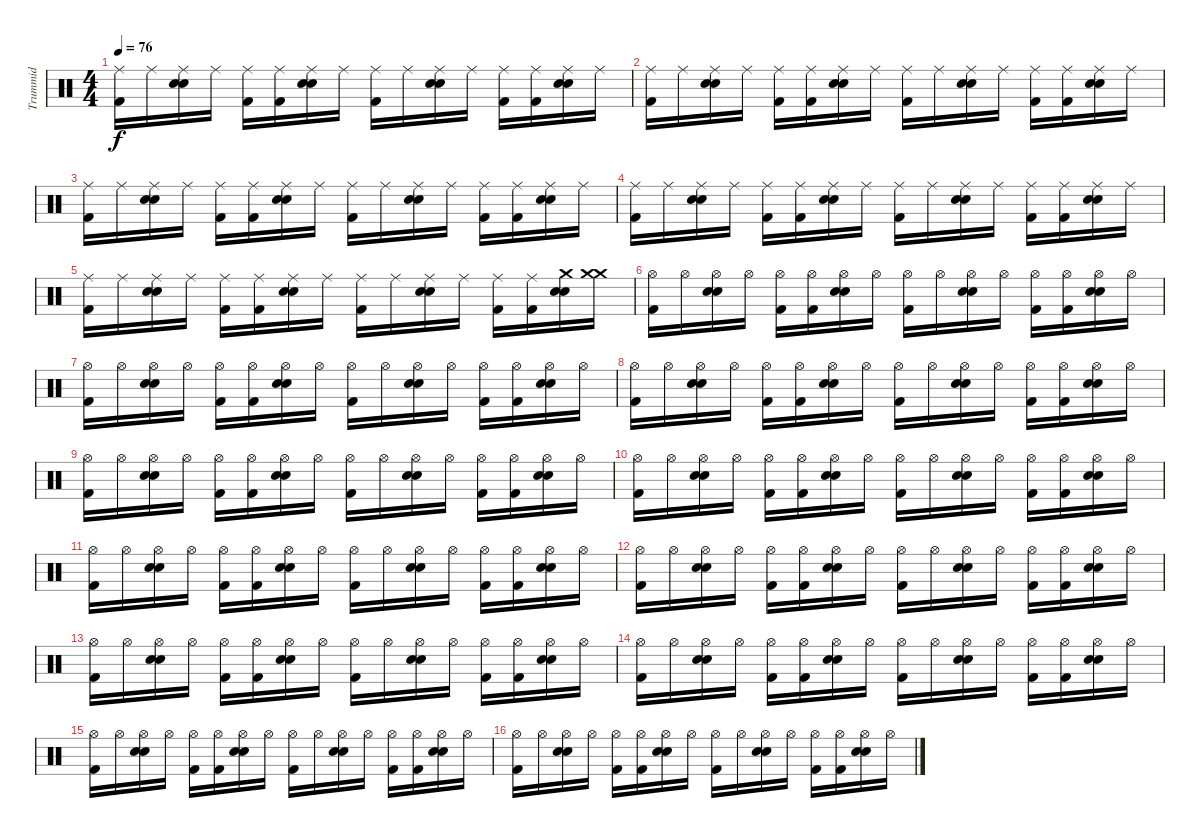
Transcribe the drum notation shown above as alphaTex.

\track ("Trummid" "Trummid") {instrument percussion}
\staff {score}
\articulation defaults
\ts (4 4)
\tempo 76
\clef neutral
\ks c
("Ride (middle)" "Kick (hit) 2").16{dy f} "Ride (middle)".16 ("Ride (middle)" "Electric Snare (hit)" "Snare (hit) 2").16 "Ride (middle)".16 ("Ride (middle)" "Kick (hit) 2").16 ("Ride (middle)" "Kick (hit) 2").16 ("Ride (middle)" "Electric Snare (hit)" "Snare (hit) 2").16 "Ride (middle)".16 ("Ride (middle)" "Kick (hit) 2").16 "Ride (middle)".16 ("Ride (middle)" "Electric Snare (hit)" "Snare (hit) 2").16 "Ride (middle)".16 ("Ride (middle)" "Kick (hit) 2").16 ("Ride (middle)" "Kick (hit) 2").16 ("Ride (middle)" "Electric Snare (hit)" "Snare (hit) 2").16 "Ride (middle)".16 |
("Ride (middle)" "Kick (hit) 2").16 "Ride (middle)".16 ("Ride (middle)" "Electric Snare (hit)" "Snare (hit) 2").16 "Ride (middle)".16 ("Ride (middle)" "Kick (hit) 2").16 ("Ride (middle)" "Kick (hit) 2").16 ("Ride (middle)" "Electric Snare (hit)" "Snare (hit) 2").16 "Ride (middle)".16 ("Ride (middle)" "Kick (hit) 2").16 "Ride (middle)".16 ("Ride (middle)" "Electric Snare (hit)" "Snare (hit) 2").16 "Ride (middle)".16 ("Ride (middle)" "Kick (hit) 2").16 ("Ride (middle)" "Kick (hit) 2").16 ("Ride (middle)" "Electric Snare (hit)" "Snare (hit) 2").16 "Ride (middle)".16 |
("Ride (middle)" "Kick (hit) 2").16 "Ride (middle)".16 ("Ride (middle)" "Electric Snare (hit)" "Snare (hit) 2").16 "Ride (middle)".16 ("Ride (middle)" "Kick (hit) 2").16 ("Ride (middle)" "Kick (hit) 2").16 ("Ride (middle)" "Electric Snare (hit)" "Snare (hit) 2").16 "Ride (middle)".16 ("Ride (middle)" "Kick (hit) 2").16 "Ride (middle)".16 ("Ride (middle)" "Electric Snare (hit)" "Snare (hit) 2").16 "Ride (middle)".16 ("Ride (middle)" "Kick (hit) 2").16 ("Ride (middle)" "Kick (hit) 2").16 ("Ride (middle)" "Electric Snare (hit)" "Snare (hit) 2").16 "Ride (middle)".16 |
("Ride (middle)" "Kick (hit) 2").16 "Ride (middle)".16 ("Ride (middle)" "Electric Snare (hit)" "Snare (hit) 2").16 "Ride (middle)".16 ("Ride (middle)" "Kick (hit) 2").16 ("Ride (middle)" "Kick (hit) 2").16 ("Ride (middle)" "Electric Snare (hit)" "Snare (hit) 2").16 "Ride (middle)".16 ("Ride (middle)" "Kick (hit) 2").16 "Ride (middle)".16 ("Ride (middle)" "Electric Snare (hit)" "Snare (hit) 2").16 "Ride (middle)".16 ("Ride (middle)" "Kick (hit) 2").16 ("Ride (middle)" "Kick (hit) 2").16 ("Ride (middle)" "Electric Snare (hit)" "Snare (hit) 2").16 "Ride (middle)".16 |
("Ride (middle)" "Kick (hit) 2").16 "Ride (middle)".16 ("Ride (middle)" "Electric Snare (hit)" "Snare (hit) 2").16 "Ride (middle)".16 ("Ride (middle)" "Kick (hit) 2").16 ("Ride (middle)" "Kick (hit) 2").16 ("Ride (middle)" "Electric Snare (hit)" "Snare (hit) 2").16 "Ride (middle)".16 ("Ride (middle)" "Kick (hit) 2").16 "Ride (middle)".16 ("Ride (middle)" "Electric Snare (hit)" "Snare (hit) 2").16 "Ride (middle)".16 ("Ride (middle)" "Kick (hit) 2").16 ("Ride (middle)" "Kick (hit) 2").16 ("Crash medium (hit)" "Electric Snare (hit)" "Snare (hit) 2").16 ("Crash medium (hit)" "Crash medium (hit)").16 |
("Hi-Hat (open)" "Kick (hit) 2").16 "Hi-Hat (open)".16 ("Hi-Hat (open)" "Electric Snare (hit)" "Snare (hit) 2").16 "Hi-Hat (open)".16 ("Hi-Hat (open)" "Kick (hit) 2").16 ("Hi-Hat (open)" "Kick (hit) 2").16 ("Hi-Hat (open)" "Electric Snare (hit)" "Snare (hit) 2").16 "Hi-Hat (open)".16 ("Hi-Hat (open)" "Kick (hit) 2").16 "Hi-Hat (open)".16 ("Hi-Hat (open)" "Electric Snare (hit)" "Snare (hit) 2").16 "Hi-Hat (open)".16 ("Hi-Hat (open)" "Kick (hit) 2").16 ("Hi-Hat (open)" "Kick (hit) 2").16 ("Hi-Hat (open)" "Electric Snare (hit)" "Snare (hit) 2").16 "Hi-Hat (open)".16 |
("Hi-Hat (open)" "Kick (hit) 2").16 "Hi-Hat (open)".16 ("Hi-Hat (open)" "Electric Snare (hit)" "Snare (hit) 2").16 "Hi-Hat (open)".16 ("Hi-Hat (open)" "Kick (hit) 2").16 ("Hi-Hat (open)" "Kick (hit) 2").16 ("Hi-Hat (open)" "Electric Snare (hit)" "Snare (hit) 2").16 "Hi-Hat (open)".16 ("Hi-Hat (open)" "Kick (hit) 2").16 "Hi-Hat (open)".16 ("Hi-Hat (open)" "Electric Snare (hit)" "Snare (hit) 2").16 "Hi-Hat (open)".16 ("Hi-Hat (open)" "Kick (hit) 2").16 ("Hi-Hat (open)" "Kick (hit) 2").16 ("Hi-Hat (open)" "Electric Snare (hit)" "Snare (hit) 2").16 "Hi-Hat (open)".16 |
("Hi-Hat (open)" "Kick (hit) 2").16 "Hi-Hat (open)".16 ("Hi-Hat (open)" "Electric Snare (hit)" "Snare (hit) 2").16 "Hi-Hat (open)".16 ("Hi-Hat (open)" "Kick (hit) 2").16 ("Hi-Hat (open)" "Kick (hit) 2").16 ("Hi-Hat (open)" "Electric Snare (hit)" "Snare (hit) 2").16 "Hi-Hat (open)".16 ("Hi-Hat (open)" "Kick (hit) 2").16 "Hi-Hat (open)".16 ("Hi-Hat (open)" "Electric Snare (hit)" "Snare (hit) 2").16 "Hi-Hat (open)".16 ("Hi-Hat (open)" "Kick (hit) 2").16 ("Hi-Hat (open)" "Kick (hit) 2").16 ("Hi-Hat (open)" "Electric Snare (hit)" "Snare (hit) 2").16 "Hi-Hat (open)".16 |
("Hi-Hat (open)" "Kick (hit) 2").16 "Hi-Hat (open)".16 ("Hi-Hat (open)" "Electric Snare (hit)" "Snare (hit) 2").16 "Hi-Hat (open)".16 ("Hi-Hat (open)" "Kick (hit) 2").16 ("Hi-Hat (open)" "Kick (hit) 2").16 ("Hi-Hat (open)" "Electric Snare (hit)" "Snare (hit) 2").16 "Hi-Hat (open)".16 ("Hi-Hat (open)" "Kick (hit) 2").16 "Hi-Hat (open)".16 ("Hi-Hat (open)" "Electric Snare (hit)" "Snare (hit) 2").16 "Hi-Hat (open)".16 ("Hi-Hat (open)" "Kick (hit) 2").16 ("Hi-Hat (open)" "Kick (hit) 2").16 ("Hi-Hat (open)" "Electric Snare (hit)" "Snare (hit) 2").16 "Hi-Hat (open)".16 |
("Hi-Hat (open)" "Kick (hit) 2").16 "Hi-Hat (open)".16 ("Hi-Hat (open)" "Electric Snare (hit)" "Snare (hit) 2").16 "Hi-Hat (open)".16 ("Hi-Hat (open)" "Kick (hit) 2").16 ("Hi-Hat (open)" "Kick (hit) 2").16 ("Hi-Hat (open)" "Electric Snare (hit)" "Snare (hit) 2").16 "Hi-Hat (open)".16 ("Hi-Hat (open)" "Kick (hit) 2").16 "Hi-Hat (open)".16 ("Hi-Hat (open)" "Electric Snare (hit)" "Snare (hit) 2").16 "Hi-Hat (open)".16 ("Hi-Hat (open)" "Kick (hit) 2").16 ("Hi-Hat (open)" "Kick (hit) 2").16 ("Hi-Hat (open)" "Electric Snare (hit)" "Snare (hit) 2").16 "Hi-Hat (open)".16 |
("Hi-Hat (open)" "Kick (hit) 2").16 "Hi-Hat (open)".16 ("Hi-Hat (open)" "Electric Snare (hit)" "Snare (hit) 2").16 "Hi-Hat (open)".16 ("Hi-Hat (open)" "Kick (hit) 2").16 ("Hi-Hat (open)" "Kick (hit) 2").16 ("Hi-Hat (open)" "Electric Snare (hit)" "Snare (hit) 2").16 "Hi-Hat (open)".16 ("Hi-Hat (open)" "Kick (hit) 2").16 "Hi-Hat (open)".16 ("Hi-Hat (open)" "Electric Snare (hit)" "Snare (hit) 2").16 "Hi-Hat (open)".16 ("Hi-Hat (open)" "Kick (hit) 2").16 ("Hi-Hat (open)" "Kick (hit) 2").16 ("Hi-Hat (open)" "Electric Snare (hit)" "Snare (hit) 2").16 "Hi-Hat (open)".16 |
("Hi-Hat (open)" "Kick (hit) 2").16 "Hi-Hat (open)".16 ("Hi-Hat (open)" "Electric Snare (hit)" "Snare (hit) 2").16 "Hi-Hat (open)".16 ("Hi-Hat (open)" "Kick (hit) 2").16 ("Hi-Hat (open)" "Kick (hit) 2").16 ("Hi-Hat (open)" "Electric Snare (hit)" "Snare (hit) 2").16 "Hi-Hat (open)".16 ("Hi-Hat (open)" "Kick (hit) 2").16 "Hi-Hat (open)".16 ("Hi-Hat (open)" "Electric Snare (hit)" "Snare (hit) 2").16 "Hi-Hat (open)".16 ("Hi-Hat (open)" "Kick (hit) 2").16 ("Hi-Hat (open)" "Kick (hit) 2").16 ("Hi-Hat (open)" "Electric Snare (hit)" "Snare (hit) 2").16 "Hi-Hat (open)".16 |
("Hi-Hat (open)" "Kick (hit) 2").16 "Hi-Hat (open)".16 ("Hi-Hat (open)" "Electric Snare (hit)" "Snare (hit) 2").16 "Hi-Hat (open)".16 ("Hi-Hat (open)" "Kick (hit) 2").16 ("Hi-Hat (open)" "Kick (hit) 2").16 ("Hi-Hat (open)" "Electric Snare (hit)" "Snare (hit) 2").16 "Hi-Hat (open)".16 ("Hi-Hat (open)" "Kick (hit) 2").16 "Hi-Hat (open)".16 ("Hi-Hat (open)" "Electric Snare (hit)" "Snare (hit) 2").16 "Hi-Hat (open)".16 ("Hi-Hat (open)" "Kick (hit) 2").16 ("Hi-Hat (open)" "Kick (hit) 2").16 ("Hi-Hat (open)" "Electric Snare (hit)" "Snare (hit) 2").16 "Hi-Hat (open)".16 |
("Hi-Hat (open)" "Kick (hit) 2").16 "Hi-Hat (open)".16 ("Hi-Hat (open)" "Electric Snare (hit)" "Snare (hit) 2").16 "Hi-Hat (open)".16 ("Hi-Hat (open)" "Kick (hit) 2").16 ("Hi-Hat (open)" "Kick (hit) 2").16 ("Hi-Hat (open)" "Electric Snare (hit)" "Snare (hit) 2").16 "Hi-Hat (open)".16 ("Hi-Hat (open)" "Kick (hit) 2").16 "Hi-Hat (open)".16 ("Hi-Hat (open)" "Electric Snare (hit)" "Snare (hit) 2").16 "Hi-Hat (open)".16 ("Hi-Hat (open)" "Kick (hit) 2").16 ("Hi-Hat (open)" "Kick (hit) 2").16 ("Hi-Hat (open)" "Electric Snare (hit)" "Snare (hit) 2").16 "Hi-Hat (open)".16 |
("Hi-Hat (open)" "Kick (hit) 2").16 "Hi-Hat (open)".16 ("Hi-Hat (open)" "Electric Snare (hit)" "Snare (hit) 2").16 "Hi-Hat (open)".16 ("Hi-Hat (open)" "Kick (hit) 2").16 ("Hi-Hat (open)" "Kick (hit) 2").16 ("Hi-Hat (open)" "Electric Snare (hit)" "Snare (hit) 2").16 "Hi-Hat (open)".16 ("Hi-Hat (open)" "Kick (hit) 2").16 "Hi-Hat (open)".16 ("Hi-Hat (open)" "Electric Snare (hit)" "Snare (hit) 2").16 "Hi-Hat (open)".16 ("Hi-Hat (open)" "Kick (hit) 2").16 ("Hi-Hat (open)" "Kick (hit) 2").16 ("Hi-Hat (open)" "Electric Snare (hit)" "Snare (hit) 2").16 "Hi-Hat (open)".16 |
("Hi-Hat (open)" "Kick (hit) 2").16 "Hi-Hat (open)".16 ("Hi-Hat (open)" "Electric Snare (hit)" "Snare (hit) 2").16 "Hi-Hat (open)".16 ("Hi-Hat (open)" "Kick (hit) 2").16 ("Hi-Hat (open)" "Kick (hit) 2").16 ("Hi-Hat (open)" "Electric Snare (hit)" "Snare (hit) 2").16 "Hi-Hat (open)".16 ("Hi-Hat (open)" "Kick (hit) 2").16 "Hi-Hat (open)".16 ("Hi-Hat (open)" "Electric Snare (hit)" "Snare (hit) 2").16 "Hi-Hat (open)".16 ("Hi-Hat (open)" "Kick (hit) 2").16 ("Hi-Hat (open)" "Kick (hit) 2").16 ("Hi-Hat (open)" "Electric Snare (hit)" "Snare (hit) 2").16 "Hi-Hat (open)".16
